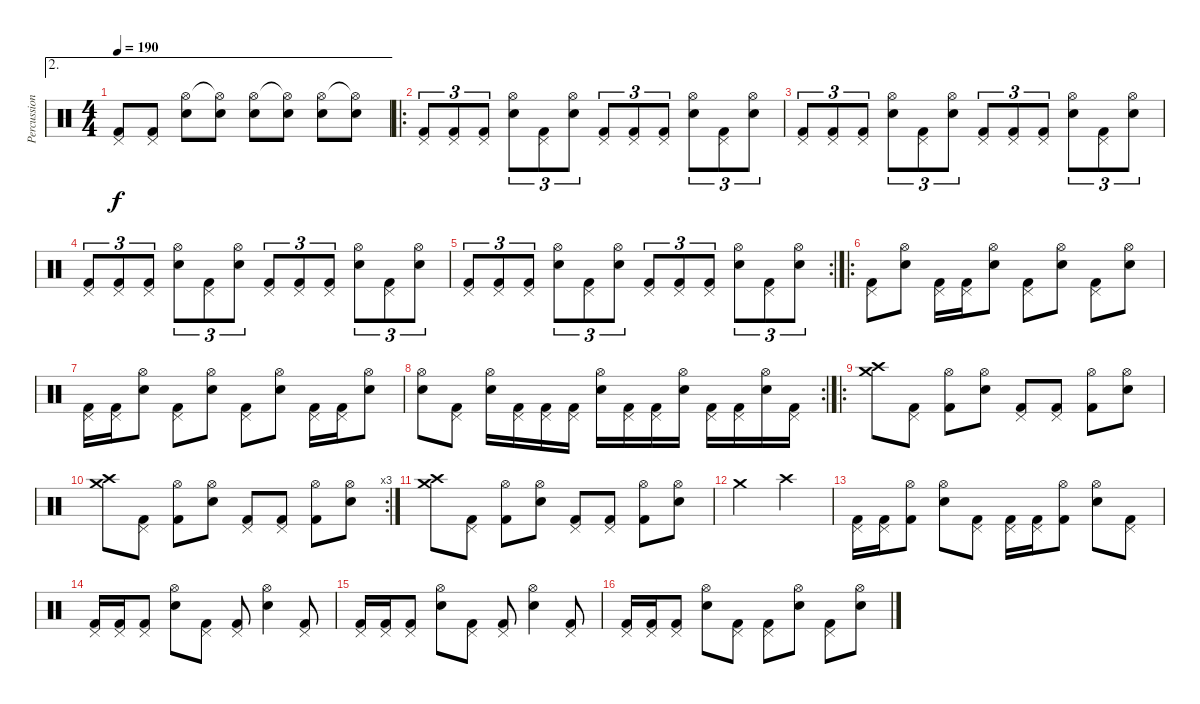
\track ("Percussion" "Percussion") {instrument percussion}
\staff {score}
\articulation defaults
\ae 2
\ts (4 4)
\tempo 190
\clef neutral
\ks c
("Pedal Hi-Hat (hit)" "Kick (hit) 2").8{dy f} ("Pedal Hi-Hat (hit)" "Kick (hit) 2").8 ("Hi-Hat (open)" "Snare (hit) 2").8 ("Hi-Hat (open)"{t} "Snare (hit) 2").8 ("Hi-Hat (open)" "Snare (hit) 2").8 ("Hi-Hat (open)"{t} "Snare (hit) 2").8 ("Hi-Hat (open)" "Snare (hit) 2").8 ("Hi-Hat (open)"{t} "Snare (hit) 2").8 |
\ro
("Pedal Hi-Hat (hit)" "Kick (hit) 2").8{tu (3 2)} ("Pedal Hi-Hat (hit)" "Kick (hit) 2").8{tu (3 2)} ("Pedal Hi-Hat (hit)" "Kick (hit) 2").8{tu (3 2)} ("Hi-Hat (open)" "Snare (hit) 2").8{tu (3 2)} ("Pedal Hi-Hat (hit)" "Kick (hit) 2").8{tu (3 2)} ("Hi-Hat (open)" "Snare (hit) 2").8{tu (3 2)} ("Pedal Hi-Hat (hit)" "Kick (hit) 2").8{tu (3 2)} ("Pedal Hi-Hat (hit)" "Kick (hit) 2").8{tu (3 2)} ("Pedal Hi-Hat (hit)" "Kick (hit) 2").8{tu (3 2)} ("Hi-Hat (open)" "Snare (hit) 2").8{tu (3 2)} ("Pedal Hi-Hat (hit)" "Kick (hit) 2").8{tu (3 2)} ("Hi-Hat (open)" "Snare (hit) 2").8{tu (3 2)} |
("Pedal Hi-Hat (hit)" "Kick (hit) 2").8{tu (3 2)} ("Pedal Hi-Hat (hit)" "Kick (hit) 2").8{tu (3 2)} ("Pedal Hi-Hat (hit)" "Kick (hit) 2").8{tu (3 2)} ("Hi-Hat (open)" "Snare (hit) 2").8{tu (3 2)} ("Pedal Hi-Hat (hit)" "Kick (hit) 2").8{tu (3 2)} ("Hi-Hat (open)" "Snare (hit) 2").8{tu (3 2)} ("Pedal Hi-Hat (hit)" "Kick (hit) 2").8{tu (3 2)} ("Pedal Hi-Hat (hit)" "Kick (hit) 2").8{tu (3 2)} ("Pedal Hi-Hat (hit)" "Kick (hit) 2").8{tu (3 2)} ("Hi-Hat (open)" "Snare (hit) 2").8{tu (3 2)} ("Pedal Hi-Hat (hit)" "Kick (hit) 2").8{tu (3 2)} ("Hi-Hat (open)" "Snare (hit) 2").8{tu (3 2)} |
("Pedal Hi-Hat (hit)" "Kick (hit) 2").8{tu (3 2)} ("Pedal Hi-Hat (hit)" "Kick (hit) 2").8{tu (3 2)} ("Pedal Hi-Hat (hit)" "Kick (hit) 2").8{tu (3 2)} ("Hi-Hat (open)" "Snare (hit) 2").8{tu (3 2)} ("Pedal Hi-Hat (hit)" "Kick (hit) 2").8{tu (3 2)} ("Hi-Hat (open)" "Snare (hit) 2").8{tu (3 2)} ("Pedal Hi-Hat (hit)" "Kick (hit) 2").8{tu (3 2)} ("Pedal Hi-Hat (hit)" "Kick (hit) 2").8{tu (3 2)} ("Pedal Hi-Hat (hit)" "Kick (hit) 2").8{tu (3 2)} ("Hi-Hat (open)" "Snare (hit) 2").8{tu (3 2)} ("Pedal Hi-Hat (hit)" "Kick (hit) 2").8{tu (3 2)} ("Hi-Hat (open)" "Snare (hit) 2").8{tu (3 2)} |
\rc 2
("Pedal Hi-Hat (hit)" "Kick (hit) 2").8{tu (3 2)} ("Pedal Hi-Hat (hit)" "Kick (hit) 2").8{tu (3 2)} ("Pedal Hi-Hat (hit)" "Kick (hit) 2").8{tu (3 2)} ("Hi-Hat (open)" "Snare (hit) 2").8{tu (3 2)} ("Pedal Hi-Hat (hit)" "Kick (hit) 2").8{tu (3 2)} ("Hi-Hat (open)" "Snare (hit) 2").8{tu (3 2)} ("Pedal Hi-Hat (hit)" "Kick (hit) 2").8{tu (3 2)} ("Pedal Hi-Hat (hit)" "Kick (hit) 2").8{tu (3 2)} ("Pedal Hi-Hat (hit)" "Kick (hit) 2").8{tu (3 2)} ("Hi-Hat (open)" "Snare (hit) 2").8{tu (3 2)} ("Pedal Hi-Hat (hit)" "Kick (hit) 2").8{tu (3 2)} ("Hi-Hat (open)" "Snare (hit) 2").8{tu (3 2)} |
\ro
("Kick (hit) 2" "Pedal Hi-Hat (hit)").8 ("Snare (hit) 2" "Hi-Hat (open)").8 ("Kick (hit) 2" "Pedal Hi-Hat (hit)").16 ("Kick (hit) 2" "Pedal Hi-Hat (hit)").16 ("Snare (hit) 2" "Hi-Hat (open)").8 ("Kick (hit) 2" "Pedal Hi-Hat (hit)").8 ("Snare (hit) 2" "Hi-Hat (open)").8 ("Kick (hit) 2" "Pedal Hi-Hat (hit)").8 ("Snare (hit) 2" "Hi-Hat (open)").8 |
("Kick (hit) 2" "Pedal Hi-Hat (hit)").16 ("Kick (hit) 2" "Pedal Hi-Hat (hit)").16 ("Snare (hit) 2" "Hi-Hat (open)").8 ("Kick (hit) 2" "Pedal Hi-Hat (hit)").8 ("Snare (hit) 2" "Hi-Hat (open)").8 ("Kick (hit) 2" "Pedal Hi-Hat (hit)").8 ("Snare (hit) 2" "Hi-Hat (open)").8 ("Kick (hit) 2" "Pedal Hi-Hat (hit)").16 ("Kick (hit) 2" "Pedal Hi-Hat (hit)").16 ("Snare (hit) 2" "Hi-Hat (open)").8 |
\rc 2
("Hi-Hat (open)" "Snare (hit) 2").8 ("Pedal Hi-Hat (hit)" "Kick (hit) 2").8 ("Hi-Hat (open)" "Snare (hit) 2").16 ("Pedal Hi-Hat (hit)" "Kick (hit) 2").16 ("Pedal Hi-Hat (hit)" "Kick (hit) 2").16 ("Pedal Hi-Hat (hit)" "Kick (hit) 2").16 ("Hi-Hat (open)" "Snare (hit) 2").16 ("Pedal Hi-Hat (hit)" "Kick (hit) 2").16 ("Pedal Hi-Hat (hit)" "Kick (hit) 2").16 ("Hi-Hat (open)" "Snare (hit) 2").16 ("Pedal Hi-Hat (hit)" "Kick (hit) 2").16 ("Pedal Hi-Hat (hit)" "Kick (hit) 2").16 ("Hi-Hat (open)" "Snare (hit) 2").16 ("Pedal Hi-Hat (hit)" "Kick (hit) 2").16 |
\ro
("Crash high (hit)" "Crash medium (hit)").8 ("Pedal Hi-Hat (hit)" "Kick (hit) 2").8 ("Hi-Hat (open)" "Kick (hit) 2").8 ("Hi-Hat (open)" "Snare (hit) 2").8 ("Pedal Hi-Hat (hit)" "Kick (hit) 2").8 ("Pedal Hi-Hat (hit)" "Kick (hit) 2").8 ("Hi-Hat (open)" "Kick (hit) 2").8 ("Hi-Hat (open)" "Snare (hit) 2").8 |
\rc 3
("Crash high (hit)" "Crash medium (hit)").8 ("Pedal Hi-Hat (hit)" "Kick (hit) 2").8 ("Hi-Hat (open)" "Kick (hit) 2").8 ("Hi-Hat (open)" "Snare (hit) 2").8 ("Pedal Hi-Hat (hit)" "Kick (hit) 2").8 ("Pedal Hi-Hat (hit)" "Kick (hit) 2").8 ("Hi-Hat (open)" "Kick (hit) 2").8 ("Hi-Hat (open)" "Snare (hit) 2").8 |
("Crash high (hit)" "Crash medium (hit)").8 ("Pedal Hi-Hat (hit)" "Kick (hit) 2").8 ("Hi-Hat (open)" "Kick (hit) 2").8 ("Hi-Hat (open)" "Snare (hit) 2").8 ("Pedal Hi-Hat (hit)" "Kick (hit) 2").8 ("Pedal Hi-Hat (hit)" "Kick (hit) 2").8 ("Hi-Hat (open)" "Kick (hit) 2").8 ("Hi-Hat (open)" "Snare (hit) 2").8 |
"Crash medium (hit)".2 "Crash high (hit)".2 |
("Pedal Hi-Hat (hit)" "Kick (hit) 2").16 ("Pedal Hi-Hat (hit)" "Kick (hit) 2").16 ("Hi-Hat (open)" "Kick (hit) 2").8 ("Hi-Hat (open)" "Snare (hit) 2").8 ("Pedal Hi-Hat (hit)" "Kick (hit) 2").8 ("Pedal Hi-Hat (hit)" "Kick (hit) 2").16 ("Pedal Hi-Hat (hit)" "Kick (hit) 2").16 ("Hi-Hat (open)" "Kick (hit) 2").8 ("Hi-Hat (open)" "Snare (hit) 2").8 ("Pedal Hi-Hat (hit)" "Kick (hit) 2").8 |
("Pedal Hi-Hat (hit)" "Kick (hit) 2").16 ("Pedal Hi-Hat (hit)" "Kick (hit) 2").16 ("Pedal Hi-Hat (hit)" "Kick (hit) 2").8 ("Hi-Hat (open)" "Snare (hit) 2").8 ("Pedal Hi-Hat (hit)" "Kick (hit) 2").8 ("Pedal Hi-Hat (hit)" "Kick (hit) 2").8 ("Hi-Hat (open)" "Snare (hit) 2").4 ("Pedal Hi-Hat (hit)" "Kick (hit) 2").8 |
("Pedal Hi-Hat (hit)" "Kick (hit) 2").16 ("Pedal Hi-Hat (hit)" "Kick (hit) 2").16 ("Pedal Hi-Hat (hit)" "Kick (hit) 2").8 ("Hi-Hat (open)" "Snare (hit) 2").8 ("Pedal Hi-Hat (hit)" "Kick (hit) 2").8 ("Pedal Hi-Hat (hit)" "Kick (hit) 2").8 ("Hi-Hat (open)" "Snare (hit) 2").4 ("Pedal Hi-Hat (hit)" "Kick (hit) 2").8 |
("Pedal Hi-Hat (hit)" "Kick (hit) 2").16 ("Pedal Hi-Hat (hit)" "Kick (hit) 2").16 ("Pedal Hi-Hat (hit)" "Kick (hit) 2").8 ("Hi-Hat (open)" "Snare (hit) 2").8 ("Pedal Hi-Hat (hit)" "Kick (hit) 2").8 ("Pedal Hi-Hat (hit)" "Kick (hit) 2").8 ("Hi-Hat (open)" "Snare (hit) 2").8 ("Pedal Hi-Hat (hit)" "Kick (hit) 2").8 ("Hi-Hat (open)" "Snare (hit) 2").8
